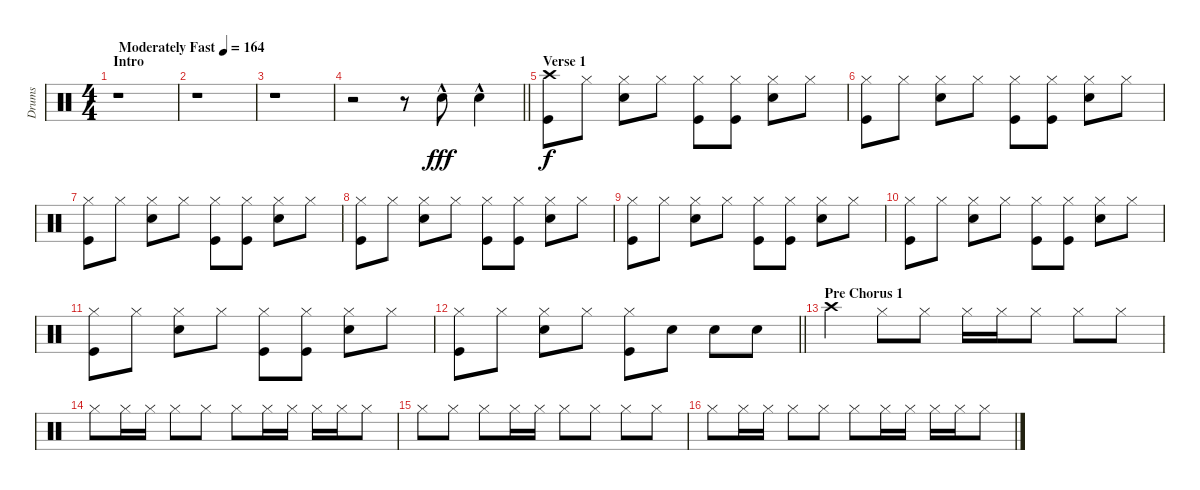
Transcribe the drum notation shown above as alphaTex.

\track ("Drums" "Drums") {instrument percussion}
\staff {score}
\articulation defaults
\ts (4 4)
\section ("" "Intro")
\tempo (164 "Moderately Fast")
\clef neutral
\ks c
r.1{dy fff} |
r.1 |
r.1 |
\barLineRight lightlight
r.2 r.8 "Snare (hit) 2"{hac}.8 "Snare (hit) 2"{hac}.4 |
\section ("" "Verse 1")
("Crash high (hit)" "Kick (hit)").8{dy f} "Hi-Hat (closed)".8 ("Hi-Hat (closed)" "Snare (hit) 2").8 "Hi-Hat (closed)".8 ("Hi-Hat (closed)" "Kick (hit)").8 ("Hi-Hat (closed)" "Kick (hit)").8 ("Hi-Hat (closed)" "Snare (hit) 2").8 "Hi-Hat (closed)".8 |
("Hi-Hat (closed)" "Kick (hit)").8 "Hi-Hat (closed)".8 ("Hi-Hat (closed)" "Snare (hit) 2").8 "Hi-Hat (closed)".8 ("Hi-Hat (closed)" "Kick (hit)").8 ("Hi-Hat (closed)" "Kick (hit)").8 ("Hi-Hat (closed)" "Snare (hit) 2").8 "Hi-Hat (closed)".8 |
("Hi-Hat (closed)" "Kick (hit)").8 "Hi-Hat (closed)".8 ("Hi-Hat (closed)" "Snare (hit) 2").8 "Hi-Hat (closed)".8 ("Hi-Hat (closed)" "Kick (hit)").8 ("Hi-Hat (closed)" "Kick (hit)").8 ("Hi-Hat (closed)" "Snare (hit) 2").8 "Hi-Hat (closed)".8 |
("Hi-Hat (closed)" "Kick (hit)").8 "Hi-Hat (closed)".8 ("Hi-Hat (closed)" "Snare (hit) 2").8 "Hi-Hat (closed)".8 ("Hi-Hat (closed)" "Kick (hit)").8 ("Hi-Hat (closed)" "Kick (hit)").8 ("Hi-Hat (closed)" "Snare (hit) 2").8 "Hi-Hat (closed)".8 |
("Hi-Hat (closed)" "Kick (hit)").8 "Hi-Hat (closed)".8 ("Hi-Hat (closed)" "Snare (hit) 2").8 "Hi-Hat (closed)".8 ("Hi-Hat (closed)" "Kick (hit)").8 ("Hi-Hat (closed)" "Kick (hit)").8 ("Hi-Hat (closed)" "Snare (hit) 2").8 "Hi-Hat (closed)".8 |
("Hi-Hat (closed)" "Kick (hit)").8 "Hi-Hat (closed)".8 ("Hi-Hat (closed)" "Snare (hit) 2").8 "Hi-Hat (closed)".8 ("Hi-Hat (closed)" "Kick (hit)").8 ("Hi-Hat (closed)" "Kick (hit)").8 ("Hi-Hat (closed)" "Snare (hit) 2").8 "Hi-Hat (closed)".8 |
("Hi-Hat (closed)" "Kick (hit)").8 "Hi-Hat (closed)".8 ("Hi-Hat (closed)" "Snare (hit) 2").8 "Hi-Hat (closed)".8 ("Hi-Hat (closed)" "Kick (hit)").8 ("Hi-Hat (closed)" "Kick (hit)").8 ("Hi-Hat (closed)" "Snare (hit) 2").8 "Hi-Hat (closed)".8 |
\barLineRight lightlight
("Hi-Hat (closed)" "Kick (hit)").8 "Hi-Hat (closed)".8 ("Hi-Hat (closed)" "Snare (hit) 2").8 "Hi-Hat (closed)".8 ("Hi-Hat (closed)" "Kick (hit)").8 "Snare (hit) 2".8 "Snare (hit) 2".8 "Snare (hit) 2".8 |
\section ("" "Pre Chorus 1")
"Crash high (hit)".4 "Hi-Hat (closed)".8 "Hi-Hat (closed)".8 "Hi-Hat (closed)".16 "Hi-Hat (closed)".16 "Hi-Hat (closed)".8 "Hi-Hat (closed)".8 "Hi-Hat (closed)".8 |
"Hi-Hat (closed)".8 "Hi-Hat (closed)".16 "Hi-Hat (closed)".16 "Hi-Hat (closed)".8 "Hi-Hat (closed)".8 "Hi-Hat (closed)".8 "Hi-Hat (closed)".16 "Hi-Hat (closed)".16 "Hi-Hat (closed)".16 "Hi-Hat (closed)".16 "Hi-Hat (closed)".8 |
"Hi-Hat (closed)".8 "Hi-Hat (closed)".8 "Hi-Hat (closed)".8 "Hi-Hat (closed)".16 "Hi-Hat (closed)".16 "Hi-Hat (closed)".8 "Hi-Hat (closed)".8 "Hi-Hat (closed)".8 "Hi-Hat (closed)".8 |
"Hi-Hat (closed)".8 "Hi-Hat (closed)".16 "Hi-Hat (closed)".16 "Hi-Hat (closed)".8 "Hi-Hat (closed)".8 "Hi-Hat (closed)".8 "Hi-Hat (closed)".16 "Hi-Hat (closed)".16 "Hi-Hat (closed)".16 "Hi-Hat (closed)".16 "Hi-Hat (closed)".8
